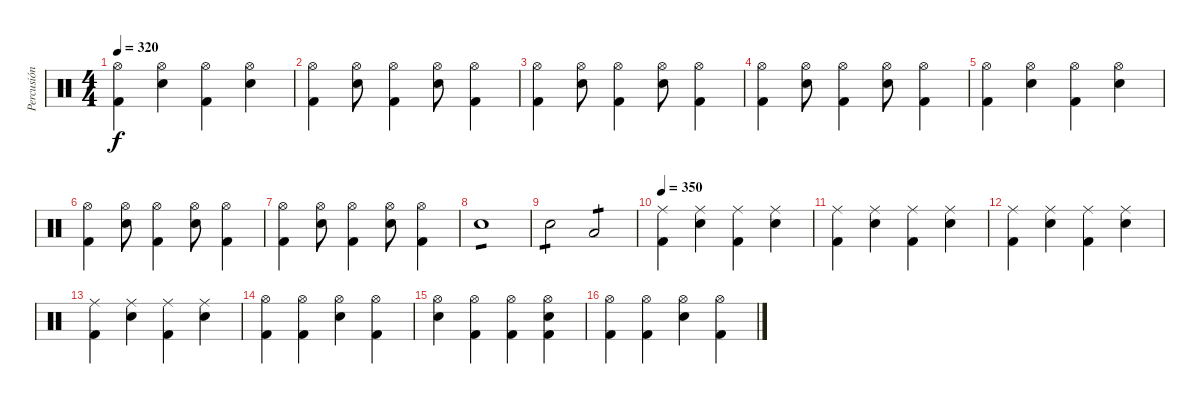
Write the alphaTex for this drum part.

\track ("Percusión" "Percusión") {instrument percussion}
\staff {score}
\articulation defaults
\ts (4 4)
\tempo 320
\clef neutral
\ks c
("Hi-Hat (open)" "Kick (hit) 2").4{dy f} ("Hi-Hat (open)" "Electric Snare (hit)").4 ("Hi-Hat (open)" "Kick (hit) 2").4 ("Hi-Hat (open)" "Electric Snare (hit)").4 |
("Hi-Hat (open)" "Kick (hit) 2").4 ("Hi-Hat (open)" "Electric Snare (hit)").8 ("Hi-Hat (open)" "Kick (hit) 2").4 ("Hi-Hat (open)" "Electric Snare (hit)").8 ("Hi-Hat (open)" "Kick (hit) 2").4 |
("Hi-Hat (open)" "Kick (hit) 2").4 ("Hi-Hat (open)" "Electric Snare (hit)").8 ("Hi-Hat (open)" "Kick (hit) 2").4 ("Hi-Hat (open)" "Electric Snare (hit)").8 ("Hi-Hat (open)" "Kick (hit) 2").4 |
("Hi-Hat (open)" "Kick (hit) 2").4 ("Hi-Hat (open)" "Electric Snare (hit)").8 ("Hi-Hat (open)" "Kick (hit) 2").4 ("Hi-Hat (open)" "Electric Snare (hit)").8 ("Hi-Hat (open)" "Kick (hit) 2").4 |
("Hi-Hat (open)" "Kick (hit) 2").4 ("Hi-Hat (open)" "Electric Snare (hit)").4 ("Hi-Hat (open)" "Kick (hit) 2").4 ("Hi-Hat (open)" "Electric Snare (hit)").4 |
("Hi-Hat (open)" "Kick (hit) 2").4 ("Hi-Hat (open)" "Electric Snare (hit)").8 ("Hi-Hat (open)" "Kick (hit) 2").4 ("Hi-Hat (open)" "Electric Snare (hit)").8 ("Hi-Hat (open)" "Kick (hit) 2").4 |
("Hi-Hat (open)" "Kick (hit) 2").4 ("Hi-Hat (open)" "Electric Snare (hit)").8 ("Hi-Hat (open)" "Kick (hit) 2").4 ("Hi-Hat (open)" "Electric Snare (hit)").8 ("Hi-Hat (open)" "Kick (hit) 2").4 |
"Electric Snare (hit)".1{tp 1} |
"Electric Snare (hit)".2{tp 1} "Low Tom (hit)".2{tp 1} |
\tempo 350
("Ride (middle)" "Kick (hit) 2").4 ("Ride (middle)" "Electric Snare (hit)").4 ("Ride (middle)" "Kick (hit) 2").4 ("Ride (middle)" "Electric Snare (hit)").4 |
("Ride (middle)" "Kick (hit) 2").4 ("Ride (middle)" "Electric Snare (hit)").4 ("Ride (middle)" "Kick (hit) 2").4 ("Ride (middle)" "Electric Snare (hit)").4 |
("Ride (middle)" "Kick (hit) 2").4 ("Ride (middle)" "Electric Snare (hit)").4 ("Ride (middle)" "Kick (hit) 2").4 ("Ride (middle)" "Electric Snare (hit)").4 |
("Ride (middle)" "Kick (hit) 2").4 ("Ride (middle)" "Electric Snare (hit)").4 ("Ride (middle)" "Kick (hit) 2").4 ("Ride (middle)" "Electric Snare (hit)").4 |
("Hi-Hat (open)" "Kick (hit) 2").4 ("Hi-Hat (open)" "Kick (hit) 2").4 ("Hi-Hat (open)" "Electric Snare (hit)").4 ("Hi-Hat (open)" "Kick (hit) 2").4 |
("Hi-Hat (open)" "Electric Snare (hit)").4 ("Hi-Hat (open)" "Kick (hit) 2").4 ("Hi-Hat (open)" "Kick (hit) 2").4 ("Hi-Hat (open)" "Electric Snare (hit)" "Kick (hit) 2").4 |
("Hi-Hat (open)" "Kick (hit) 2").4 ("Hi-Hat (open)" "Kick (hit) 2").4 ("Hi-Hat (open)" "Electric Snare (hit)").4 ("Hi-Hat (open)" "Kick (hit) 2").4
